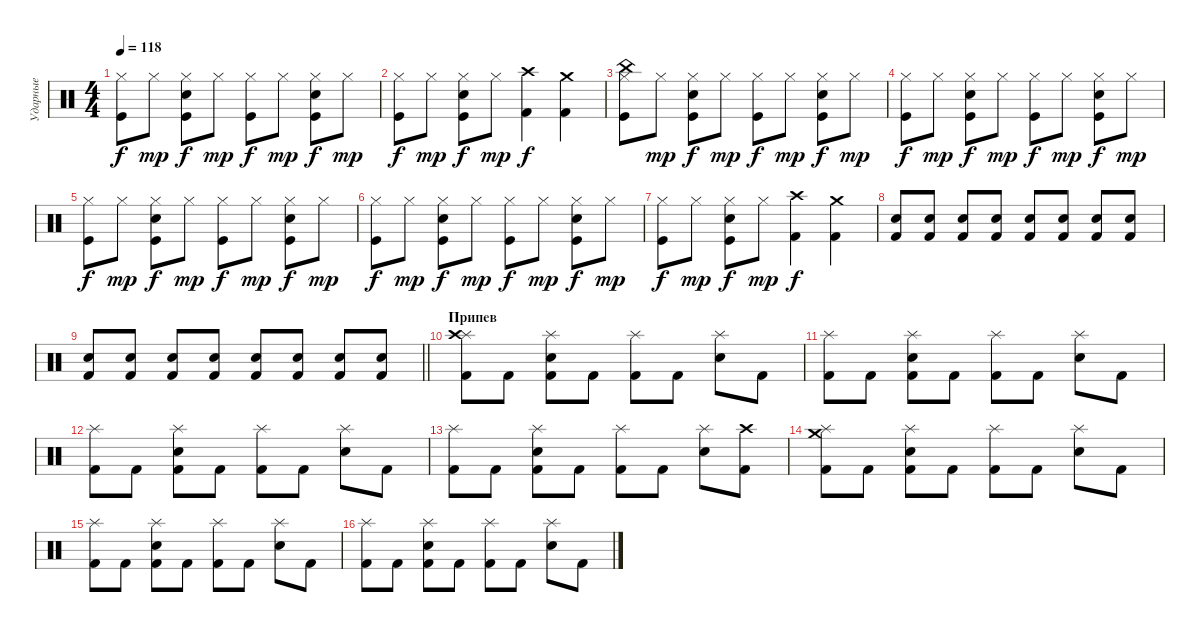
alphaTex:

\track ("Ударные" "Ударные") {instrument percussion}
\staff {score}
\articulation defaults
\ts (4 4)
\tempo 118
\clef neutral
\ks c
("Hi-Hat (closed)" "Kick (hit)").8{dy f} "Hi-Hat (closed)".8{dy mp} ("Hi-Hat (closed)" "Kick (hit)" "Electric Snare (hit)").8{dy f} "Hi-Hat (closed)".8{dy mp} ("Hi-Hat (closed)" "Kick (hit)").8{dy f} "Hi-Hat (closed)".8{dy mp} ("Hi-Hat (closed)" "Kick (hit)" "Electric Snare (hit)").8{dy f} "Hi-Hat (closed)".8{dy mp} |
("Hi-Hat (closed)" "Kick (hit)").8{dy f} "Hi-Hat (closed)".8{dy mp} ("Hi-Hat (closed)" "Kick (hit)" "Electric Snare (hit)").8{dy f} "Hi-Hat (closed)".8{dy mp} ("Kick (hit) 2" "Crash high (hit)").4{dy f} ("Kick (hit) 2" "Crash medium (hit)").4 |
("Hi-Hat (closed)" "Kick (hit)" "China (hit)").8 "Hi-Hat (closed)".8{dy mp} ("Hi-Hat (closed)" "Kick (hit)" "Electric Snare (hit)").8{dy f} "Hi-Hat (closed)".8{dy mp} ("Hi-Hat (closed)" "Kick (hit)").8{dy f} "Hi-Hat (closed)".8{dy mp} ("Hi-Hat (closed)" "Kick (hit)" "Electric Snare (hit)").8{dy f} "Hi-Hat (closed)".8{dy mp} |
("Hi-Hat (closed)" "Kick (hit)").8{dy f} "Hi-Hat (closed)".8{dy mp} ("Hi-Hat (closed)" "Kick (hit)" "Electric Snare (hit)").8{dy f} "Hi-Hat (closed)".8{dy mp} ("Hi-Hat (closed)" "Kick (hit)").8{dy f} "Hi-Hat (closed)".8{dy mp} ("Hi-Hat (closed)" "Kick (hit)" "Electric Snare (hit)").8{dy f} "Hi-Hat (closed)".8{dy mp} |
("Hi-Hat (closed)" "Kick (hit)").8{dy f} "Hi-Hat (closed)".8{dy mp} ("Hi-Hat (closed)" "Kick (hit)" "Electric Snare (hit)").8{dy f} "Hi-Hat (closed)".8{dy mp} ("Hi-Hat (closed)" "Kick (hit)").8{dy f} "Hi-Hat (closed)".8{dy mp} ("Hi-Hat (closed)" "Kick (hit)" "Electric Snare (hit)").8{dy f} "Hi-Hat (closed)".8{dy mp} |
("Hi-Hat (closed)" "Kick (hit)").8{dy f} "Hi-Hat (closed)".8{dy mp} ("Hi-Hat (closed)" "Kick (hit)" "Electric Snare (hit)").8{dy f} "Hi-Hat (closed)".8{dy mp} ("Hi-Hat (closed)" "Kick (hit)").8{dy f} "Hi-Hat (closed)".8{dy mp} ("Hi-Hat (closed)" "Kick (hit)" "Electric Snare (hit)").8{dy f} "Hi-Hat (closed)".8{dy mp} |
("Hi-Hat (closed)" "Kick (hit)").8{dy f} "Hi-Hat (closed)".8{dy mp} ("Hi-Hat (closed)" "Kick (hit)" "Electric Snare (hit)").8{dy f} "Hi-Hat (closed)".8{dy mp} ("Kick (hit) 2" "Crash high (hit)").4{dy f} ("Kick (hit) 2" "Crash medium (hit)").4 |
("Kick (hit) 2" "Electric Snare (hit)").8 ("Kick (hit) 2" "Electric Snare (hit)").8 ("Kick (hit) 2" "Electric Snare (hit)").8 ("Kick (hit) 2" "Electric Snare (hit)").8 ("Kick (hit) 2" "Electric Snare (hit)").8 ("Kick (hit) 2" "Electric Snare (hit)").8 ("Kick (hit) 2" "Electric Snare (hit)").8 ("Kick (hit) 2" "Electric Snare (hit)").8 |
\barLineRight lightlight
("Kick (hit) 2" "Electric Snare (hit)").8 ("Kick (hit) 2" "Electric Snare (hit)").8 ("Kick (hit) 2" "Electric Snare (hit)").8 ("Kick (hit) 2" "Electric Snare (hit)").8 ("Kick (hit) 2" "Electric Snare (hit)").8 ("Kick (hit) 2" "Electric Snare (hit)").8 ("Kick (hit) 2" "Electric Snare (hit)").8 ("Kick (hit) 2" "Electric Snare (hit)").8 |
\section ("" "Припев")
("Splash (hit)" "Kick (hit) 2" "Crash high (hit)").8 "Kick (hit) 2".8 ("Splash (hit)" "Kick (hit) 2" "Electric Snare (hit)").8 "Kick (hit) 2".8 ("Splash (hit)" "Kick (hit) 2").8 "Kick (hit) 2".8 ("Splash (hit)" "Electric Snare (hit)").8 "Kick (hit) 2".8 |
("Splash (hit)" "Kick (hit) 2").8 "Kick (hit) 2".8 ("Splash (hit)" "Kick (hit) 2" "Electric Snare (hit)").8 "Kick (hit) 2".8 ("Splash (hit)" "Kick (hit) 2").8 "Kick (hit) 2".8 ("Splash (hit)" "Electric Snare (hit)").8 "Kick (hit) 2".8 |
("Splash (hit)" "Kick (hit) 2").8 "Kick (hit) 2".8 ("Splash (hit)" "Kick (hit) 2" "Electric Snare (hit)").8 "Kick (hit) 2".8 ("Splash (hit)" "Kick (hit) 2").8 "Kick (hit) 2".8 ("Splash (hit)" "Electric Snare (hit)").8 "Kick (hit) 2".8 |
("Splash (hit)" "Kick (hit) 2").8 "Kick (hit) 2".8 ("Splash (hit)" "Kick (hit) 2" "Electric Snare (hit)").8 "Kick (hit) 2".8 ("Splash (hit)" "Kick (hit) 2").8 "Kick (hit) 2".8 ("Splash (hit)" "Electric Snare (hit)").8 ("Crash high (hit)" "Kick (hit) 2").8 |
("Splash (hit)" "Kick (hit) 2" "Crash medium (hit)").8 "Kick (hit) 2".8 ("Splash (hit)" "Kick (hit) 2" "Electric Snare (hit)").8 "Kick (hit) 2".8 ("Splash (hit)" "Kick (hit) 2").8 "Kick (hit) 2".8 ("Splash (hit)" "Electric Snare (hit)").8 "Kick (hit) 2".8 |
("Splash (hit)" "Kick (hit) 2").8 "Kick (hit) 2".8 ("Splash (hit)" "Kick (hit) 2" "Electric Snare (hit)").8 "Kick (hit) 2".8 ("Splash (hit)" "Kick (hit) 2").8 "Kick (hit) 2".8 ("Splash (hit)" "Electric Snare (hit)").8 "Kick (hit) 2".8 |
("Splash (hit)" "Kick (hit) 2").8 "Kick (hit) 2".8 ("Splash (hit)" "Kick (hit) 2" "Electric Snare (hit)").8 "Kick (hit) 2".8 ("Splash (hit)" "Kick (hit) 2").8 "Kick (hit) 2".8 ("Splash (hit)" "Electric Snare (hit)").8 "Kick (hit) 2".8
